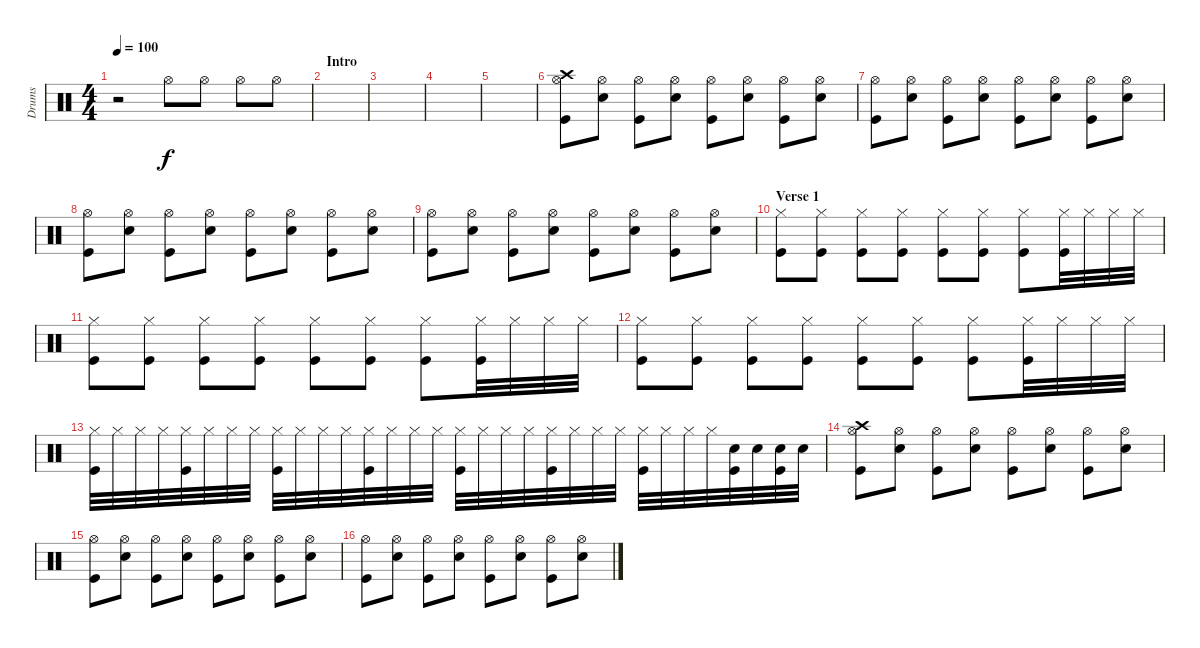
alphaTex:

\track ("Drums" "Drums") {instrument percussion}
\staff {score}
\articulation defaults
\ts (4 4)
\tempo 100
\clef neutral
\ks c
r.2{dy f} "Hi-Hat (open)".8 "Hi-Hat (open)".8 "Hi-Hat (open)".8 "Hi-Hat (open)".8 |
\section ("" "Intro")
|
|
|
|
("Hi-Hat (open)" "Crash high (hit)" "Kick (hit)").8 ("Hi-Hat (open)" "Snare (hit) 2").8 ("Hi-Hat (open)" "Kick (hit)").8 ("Hi-Hat (open)" "Snare (hit) 2").8 ("Hi-Hat (open)" "Kick (hit)").8 ("Hi-Hat (open)" "Snare (hit) 2").8 ("Hi-Hat (open)" "Kick (hit)").8 ("Hi-Hat (open)" "Snare (hit) 2").8 |
("Hi-Hat (open)" "Kick (hit)").8 ("Hi-Hat (open)" "Snare (hit) 2").8 ("Hi-Hat (open)" "Kick (hit)").8 ("Hi-Hat (open)" "Snare (hit) 2").8 ("Hi-Hat (open)" "Kick (hit)").8 ("Hi-Hat (open)" "Snare (hit) 2").8 ("Hi-Hat (open)" "Kick (hit)").8 ("Hi-Hat (open)" "Snare (hit) 2").8 |
("Hi-Hat (open)" "Kick (hit)").8 ("Hi-Hat (open)" "Snare (hit) 2").8 ("Hi-Hat (open)" "Kick (hit)").8 ("Hi-Hat (open)" "Snare (hit) 2").8 ("Hi-Hat (open)" "Kick (hit)").8 ("Hi-Hat (open)" "Snare (hit) 2").8 ("Hi-Hat (open)" "Kick (hit)").8 ("Hi-Hat (open)" "Snare (hit) 2").8 |
("Hi-Hat (open)" "Kick (hit)").8 ("Hi-Hat (open)" "Snare (hit) 2").8 ("Hi-Hat (open)" "Kick (hit)").8 ("Hi-Hat (open)" "Snare (hit) 2").8 ("Hi-Hat (open)" "Kick (hit)").8 ("Hi-Hat (open)" "Snare (hit) 2").8 ("Hi-Hat (open)" "Kick (hit)").8 ("Hi-Hat (open)" "Snare (hit) 2").8 |
\section ("" "Verse 1")
("Hi-Hat (closed)" "Kick (hit)").8 ("Hi-Hat (closed)" "Kick (hit)").8 ("Hi-Hat (closed)" "Kick (hit)").8 ("Hi-Hat (closed)" "Kick (hit)").8 ("Hi-Hat (closed)" "Kick (hit)").8 ("Hi-Hat (closed)" "Kick (hit)").8 ("Hi-Hat (closed)" "Kick (hit)").8 ("Hi-Hat (closed)" "Kick (hit)").32 "Hi-Hat (closed)".32 "Hi-Hat (closed)".32 "Hi-Hat (closed)".32 |
("Hi-Hat (closed)" "Kick (hit)").8 ("Hi-Hat (closed)" "Kick (hit)").8 ("Hi-Hat (closed)" "Kick (hit)").8 ("Hi-Hat (closed)" "Kick (hit)").8 ("Hi-Hat (closed)" "Kick (hit)").8 ("Hi-Hat (closed)" "Kick (hit)").8 ("Hi-Hat (closed)" "Kick (hit)").8 ("Hi-Hat (closed)" "Kick (hit)").32 "Hi-Hat (closed)".32 "Hi-Hat (closed)".32 "Hi-Hat (closed)".32 |
("Hi-Hat (closed)" "Kick (hit)").8 ("Hi-Hat (closed)" "Kick (hit)").8 ("Hi-Hat (closed)" "Kick (hit)").8 ("Hi-Hat (closed)" "Kick (hit)").8 ("Hi-Hat (closed)" "Kick (hit)").8 ("Hi-Hat (closed)" "Kick (hit)").8 ("Hi-Hat (closed)" "Kick (hit)").8 ("Hi-Hat (closed)" "Kick (hit)").32 "Hi-Hat (closed)".32 "Hi-Hat (closed)".32 "Hi-Hat (closed)".32 |
("Hi-Hat (closed)" "Kick (hit)").32 "Hi-Hat (closed)".32 "Hi-Hat (closed)".32 "Hi-Hat (closed)".32 ("Hi-Hat (closed)" "Kick (hit)").32 "Hi-Hat (closed)".32 "Hi-Hat (closed)".32 "Hi-Hat (closed)".32 ("Hi-Hat (closed)" "Kick (hit)").32 "Hi-Hat (closed)".32 "Hi-Hat (closed)".32 "Hi-Hat (closed)".32 ("Hi-Hat (closed)" "Kick (hit)").32 "Hi-Hat (closed)".32 "Hi-Hat (closed)".32 "Hi-Hat (closed)".32 ("Hi-Hat (closed)" "Kick (hit)").32 "Hi-Hat (closed)".32 "Hi-Hat (closed)".32 "Hi-Hat (closed)".32 ("Hi-Hat (closed)" "Kick (hit)").32 "Hi-Hat (closed)".32 "Hi-Hat (closed)".32 "Hi-Hat (closed)".32 ("Hi-Hat (closed)" "Kick (hit)").32 "Hi-Hat (closed)".32 "Hi-Hat (closed)".32 "Hi-Hat (closed)".32 ("Snare (hit) 2" "Kick (hit)").32 "Snare (hit) 2".32 ("Snare (hit) 2" "Kick (hit)").32 "Snare (hit) 2".32 |
("Hi-Hat (open)" "Crash high (hit)" "Kick (hit)").8 ("Hi-Hat (open)" "Snare (hit) 2").8 ("Hi-Hat (open)" "Kick (hit)").8 ("Hi-Hat (open)" "Snare (hit) 2").8 ("Hi-Hat (open)" "Kick (hit)").8 ("Hi-Hat (open)" "Snare (hit) 2").8 ("Hi-Hat (open)" "Kick (hit)").8 ("Hi-Hat (open)" "Snare (hit) 2").8 |
("Hi-Hat (open)" "Kick (hit)").8 ("Hi-Hat (open)" "Snare (hit) 2").8 ("Hi-Hat (open)" "Kick (hit)").8 ("Hi-Hat (open)" "Snare (hit) 2").8 ("Hi-Hat (open)" "Kick (hit)").8 ("Hi-Hat (open)" "Snare (hit) 2").8 ("Hi-Hat (open)" "Kick (hit)").8 ("Hi-Hat (open)" "Snare (hit) 2").8 |
("Hi-Hat (open)" "Kick (hit)").8 ("Hi-Hat (open)" "Snare (hit) 2").8 ("Hi-Hat (open)" "Kick (hit)").8 ("Hi-Hat (open)" "Snare (hit) 2").8 ("Hi-Hat (open)" "Kick (hit)").8 ("Hi-Hat (open)" "Snare (hit) 2").8 ("Hi-Hat (open)" "Kick (hit)").8 ("Hi-Hat (open)" "Snare (hit) 2").8
